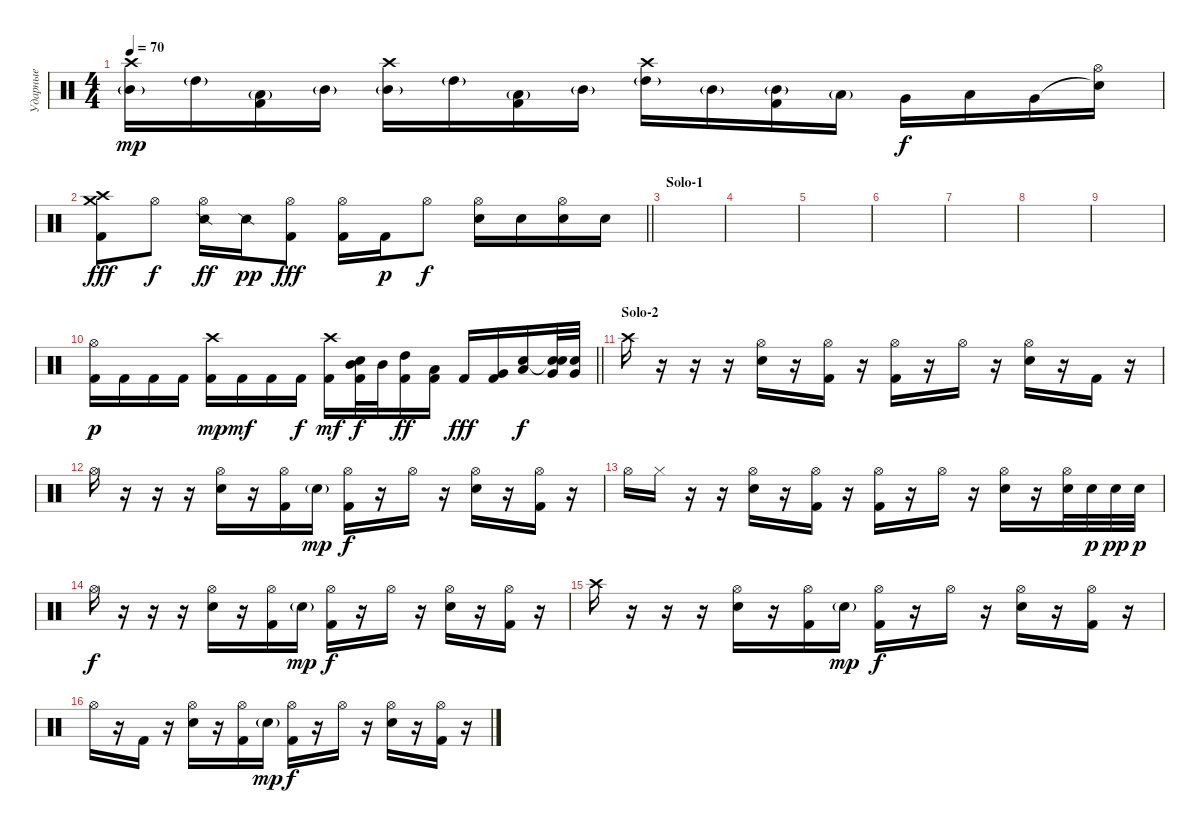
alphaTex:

\track ("Ударные" "Ударные") {instrument percussion}
\staff {score}
\articulation defaults
\ts (4 4)
\tempo 70
\clef neutral
\ks c
("Mid Tom (hit)"{g} "Crash high (hit)").16{dy mp} "High Tom (hit)"{g}.16 ("Low Tom (hit)"{g} "Kick (hit) 2").16 "Mid Tom (hit)"{g}.16 ("Mid Tom (hit)"{g} "Crash high (hit)").16 "High Tom (hit)"{g}.16 ("Low Tom (hit)"{g} "Kick (hit) 2").16 "Mid Tom (hit)"{g}.16 ("High Tom (hit)"{g} "Crash high (hit)").16 "Mid Tom (hit)"{g}.16 ("Mid Tom (hit)"{g} "Kick (hit) 2").16 "Low Tom (hit)"{g}.16 "Very Low Tom (hit)".16{dy f} "Low Floor Tom (hit)".16 "Very Low Tom (hit)".16 ("Snare (hit)"{t} "Hi-Hat (open)").16 |
\barLineRight lightlight
("Crash medium (hit)" "Kick (hit) 2" "Crash high (hit)").8{dy fff} "Hi-Hat (open)".8{dy f} ("Hi-Hat (open)" "Snare (side stick) 2").16{dy ff} "Snare (side stick) 2".16{dy pp} ("Kick (hit) 2" "Hi-Hat (open)").8{dy fff} ("Kick (hit) 2" "Hi-Hat (open)").16 "Kick (hit) 2".16{dy p} "Hi-Hat (open)".8{dy f} ("Hi-Hat (open)" "Electric Snare (hit)").16 "Electric Snare (hit)".16 ("Hi-Hat (open)" "Electric Snare (hit)").16 "Electric Snare (hit)".16 |
\section ("" "Solo-1")
|
|
|
|
|
|
|
\barLineRight lightlight
("Kick (hit) 2" "Hi-Hat (open)").16{dy p} "Kick (hit) 2".16 "Kick (hit) 2".16 "Kick (hit) 2".16 ("Kick (hit) 2" "Crash high (hit)").16{dy mp} "Kick (hit) 2".16{dy mf} "Kick (hit) 2".16 "Kick (hit) 2".16{dy f} ("Kick (hit) 2" "Crash high (hit)").16{dy mf} ("Kick (hit) 2" "Electric Snare (hit)" "Mid Tom (hit)").32{dy f} "Mid Tom (hit)".32 ("Kick (hit) 2" "High Tom (hit)").16{dy ff} ("Kick (hit) 2" "Low Floor Tom (hit)").16 "Kick (hit) 2".16{dy fff} ("Kick (hit) 2" "Very Low Tom (hit)").16 ("Electric Snare (hit)" "Low Floor Tom (hit)").16{dy f} ("Snare (hit)"{t} "Electric Snare (hit)" "Very Low Tom (hit)").32 ("Electric Snare (hit)" "Very Low Tom (hit)").32 |
\section ("" "Solo-2")
"Crash high (hit)".16 r.16 r.16 r.16 ("Hi-Hat (open)" "Electric Snare (hit)").16 r.16 ("Hi-Hat (open)" "Kick (hit) 2").16 r.16 ("Hi-Hat (open)" "Kick (hit) 2").16 r.16 "Hi-Hat (open)".16 r.16 ("Hi-Hat (open)" "Electric Snare (hit)").16 r.16 "Kick (hit) 2".16 r.16 |
"Hi-Hat (open)".16 r.16 r.16 r.16 ("Hi-Hat (open)" "Electric Snare (hit)").16 r.16 ("Hi-Hat (open)" "Kick (hit) 2").16 "Electric Snare (hit)"{g}.16{dy mp} ("Hi-Hat (open)" "Kick (hit) 2").16{dy f} r.16 "Hi-Hat (open)".16 r.16 ("Hi-Hat (open)" "Electric Snare (hit)").16 r.16 ("Hi-Hat (open)" "Kick (hit) 2").16 r.16 |
"Hi-Hat (open)".16 "Hi-Hat (closed)".16 r.16 r.16 ("Hi-Hat (open)" "Electric Snare (hit)").16 r.16 ("Hi-Hat (open)" "Kick (hit) 2").16 r.16 ("Hi-Hat (open)" "Kick (hit) 2").16 r.16 "Hi-Hat (open)".16 r.16 ("Hi-Hat (open)" "Electric Snare (hit)").16 r.16 ("Hi-Hat (open)" "Electric Snare (hit)").32 "Electric Snare (hit)".32{dy p} "Electric Snare (hit)".32{dy pp} "Electric Snare (hit)".32{dy p} |
"Hi-Hat (open)".16{dy f} r.16 r.16 r.16 ("Hi-Hat (open)" "Electric Snare (hit)").16 r.16 ("Hi-Hat (open)" "Kick (hit) 2").16 "Electric Snare (hit)"{g}.16{dy mp} ("Hi-Hat (open)" "Kick (hit) 2").16{dy f} r.16 "Hi-Hat (open)".16 r.16 ("Hi-Hat (open)" "Electric Snare (hit)").16 r.16 ("Hi-Hat (open)" "Kick (hit) 2").16 r.16 |
"Crash high (hit)".16 r.16 r.16 r.16 ("Hi-Hat (open)" "Electric Snare (hit)").16 r.16 ("Hi-Hat (open)" "Kick (hit) 2").16 "Electric Snare (hit)"{g}.16{dy mp} ("Hi-Hat (open)" "Kick (hit) 2").16{dy f} r.16 "Hi-Hat (open)".16 r.16 ("Hi-Hat (open)" "Electric Snare (hit)").16 r.16 ("Hi-Hat (open)" "Kick (hit) 2").16 r.16 |
"Hi-Hat (open)".16 r.16 "Kick (hit) 2".16 r.16 ("Hi-Hat (open)" "Electric Snare (hit)").16 r.16 ("Hi-Hat (open)" "Kick (hit) 2").16 "Electric Snare (hit)"{g}.16{dy mp} ("Hi-Hat (open)" "Kick (hit) 2").16{dy f} r.16 "Hi-Hat (open)".16 r.16 ("Hi-Hat (open)" "Electric Snare (hit)").16 r.16 ("Hi-Hat (open)" "Kick (hit) 2").16 r.16
